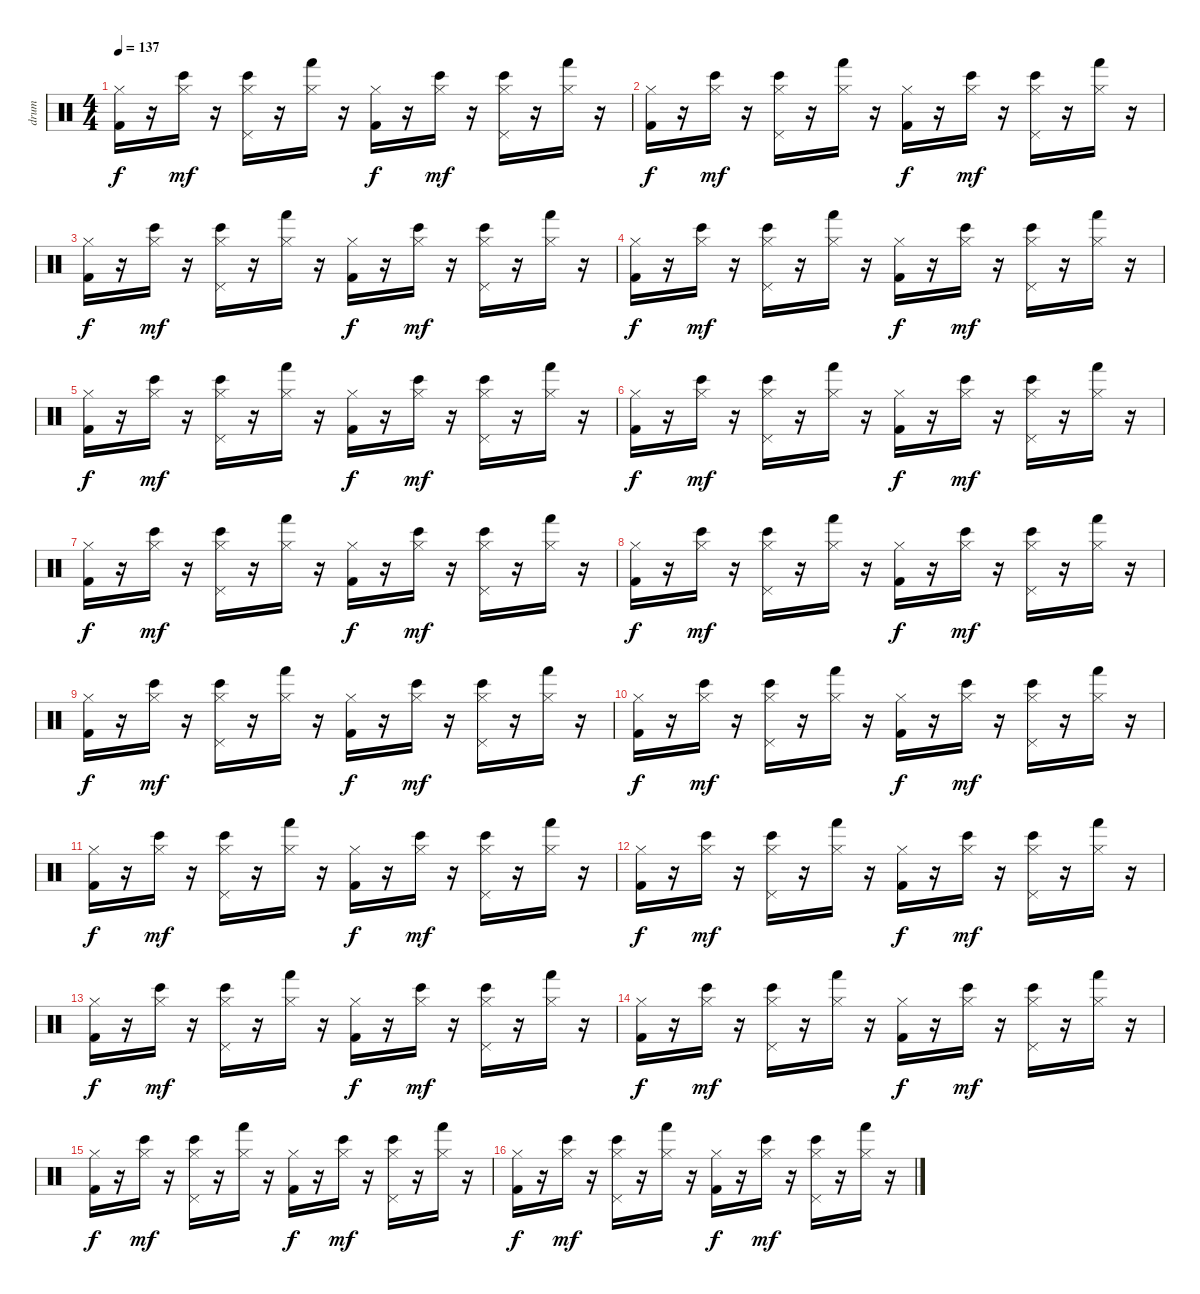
\track ("drum" "drum") {instrument percussion}
\staff {score}
\articulation defaults
\ts (4 4)
\tempo 137
\clef neutral
\ks c
("Kick (hit) 2" "Hi-Hat (closed)").16{dy f} r.16 ("Hi-Hat (closed)" "Bongo High (hit)").16{dy mf} r.16 ("Bongo High (hit)" "Hi-Hat (closed)" "Pedal Hi-Hat (hit)").16 r.16 ("Hi-Hat (closed)" "Hand (hit)").16 r.16 ("Kick (hit) 2" "Hi-Hat (closed)").16{dy f} r.16 ("Bongo High (hit)" "Hi-Hat (closed)").16{dy mf} r.16 ("Hi-Hat (closed)" "Bongo High (hit)" "Pedal Hi-Hat (hit)").16 r.16 ("Hand (hit)" "Hi-Hat (closed)").16 r.16 |
("Hi-Hat (closed)" "Kick (hit) 2").16{dy f} r.16 ("Hi-Hat (closed)" "Bongo High (hit)").16{dy mf} r.16 ("Bongo High (hit)" "Hi-Hat (closed)" "Pedal Hi-Hat (hit)").16 r.16 ("Hi-Hat (closed)" "Hand (hit)").16 r.16 ("Hi-Hat (closed)" "Kick (hit) 2").16{dy f} r.16 ("Hi-Hat (closed)" "Bongo High (hit)").16{dy mf} r.16 ("Hi-Hat (closed)" "Bongo High (hit)" "Pedal Hi-Hat (hit)").16 r.16 ("Hand (hit)" "Hi-Hat (closed)").16 r.16 |
("Hi-Hat (closed)" "Kick (hit) 2").16{dy f} r.16 ("Hi-Hat (closed)" "Bongo High (hit)").16{dy mf} r.16 ("Bongo High (hit)" "Hi-Hat (closed)" "Pedal Hi-Hat (hit)").16 r.16 ("Hand (hit)" "Hi-Hat (closed)").16 r.16 ("Hi-Hat (closed)" "Kick (hit) 2").16{dy f} r.16 ("Bongo High (hit)" "Hi-Hat (closed)").16{dy mf} r.16 ("Hi-Hat (closed)" "Bongo High (hit)" "Pedal Hi-Hat (hit)").16 r.16 ("Hand (hit)" "Hi-Hat (closed)").16 r.16 |
("Kick (hit) 2" "Hi-Hat (closed)").16{dy f} r.16 ("Hi-Hat (closed)" "Bongo High (hit)").16{dy mf} r.16 ("Hi-Hat (closed)" "Bongo High (hit)" "Pedal Hi-Hat (hit)").16 r.16 ("Hand (hit)" "Hi-Hat (closed)").16 r.16 ("Kick (hit) 2" "Hi-Hat (closed)").16{dy f} r.16 ("Bongo High (hit)" "Hi-Hat (closed)").16{dy mf} r.16 ("Bongo High (hit)" "Hi-Hat (closed)" "Pedal Hi-Hat (hit)").16 r.16 ("Hi-Hat (closed)" "Hand (hit)").16 r.16 |
("Hi-Hat (closed)" "Kick (hit) 2").16{dy f} r.16 ("Hi-Hat (closed)" "Bongo High (hit)").16{dy mf} r.16 ("Hi-Hat (closed)" "Bongo High (hit)" "Pedal Hi-Hat (hit)").16 r.16 ("Hi-Hat (closed)" "Hand (hit)").16 r.16 ("Hi-Hat (closed)" "Kick (hit) 2").16{dy f} r.16 ("Bongo High (hit)" "Hi-Hat (closed)").16{dy mf} r.16 ("Hi-Hat (closed)" "Bongo High (hit)" "Pedal Hi-Hat (hit)").16 r.16 ("Hand (hit)" "Hi-Hat (closed)").16 r.16 |
("Kick (hit) 2" "Hi-Hat (closed)").16{dy f} r.16 ("Bongo High (hit)" "Hi-Hat (closed)").16{dy mf} r.16 ("Hi-Hat (closed)" "Bongo High (hit)" "Pedal Hi-Hat (hit)").16 r.16 ("Hand (hit)" "Hi-Hat (closed)").16 r.16 ("Hi-Hat (closed)" "Kick (hit) 2").16{dy f} r.16 ("Bongo High (hit)" "Hi-Hat (closed)").16{dy mf} r.16 ("Bongo High (hit)" "Hi-Hat (closed)" "Pedal Hi-Hat (hit)").16 r.16 ("Hi-Hat (closed)" "Hand (hit)").16 r.16 |
("Kick (hit) 2" "Hi-Hat (closed)").16{dy f} r.16 ("Hi-Hat (closed)" "Bongo High (hit)").16{dy mf} r.16 ("Hi-Hat (closed)" "Bongo High (hit)" "Pedal Hi-Hat (hit)").16 r.16 ("Hand (hit)" "Hi-Hat (closed)").16 r.16 ("Hi-Hat (closed)" "Kick (hit) 2").16{dy f} r.16 ("Hi-Hat (closed)" "Bongo High (hit)").16{dy mf} r.16 ("Bongo High (hit)" "Hi-Hat (closed)" "Pedal Hi-Hat (hit)").16 r.16 ("Hi-Hat (closed)" "Hand (hit)").16 r.16 |
("Kick (hit) 2" "Hi-Hat (closed)").16{dy f} r.16 ("Hi-Hat (closed)" "Bongo High (hit)").16{dy mf} r.16 ("Bongo High (hit)" "Hi-Hat (closed)" "Pedal Hi-Hat (hit)").16 r.16 ("Hi-Hat (closed)" "Hand (hit)").16 r.16 ("Hi-Hat (closed)" "Kick (hit) 2").16{dy f} r.16 ("Hi-Hat (closed)" "Bongo High (hit)").16{dy mf} r.16 ("Hi-Hat (closed)" "Bongo High (hit)" "Pedal Hi-Hat (hit)").16 r.16 ("Hand (hit)" "Hi-Hat (closed)").16 r.16 |
("Kick (hit) 2" "Hi-Hat (closed)").16{dy f} r.16 ("Bongo High (hit)" "Hi-Hat (closed)").16{dy mf} r.16 ("Hi-Hat (closed)" "Bongo High (hit)" "Pedal Hi-Hat (hit)").16 r.16 ("Hi-Hat (closed)" "Hand (hit)").16 r.16 ("Kick (hit) 2" "Hi-Hat (closed)").16{dy f} r.16 ("Bongo High (hit)" "Hi-Hat (closed)").16{dy mf} r.16 ("Bongo High (hit)" "Hi-Hat (closed)" "Pedal Hi-Hat (hit)").16 r.16 ("Hand (hit)" "Hi-Hat (closed)").16 r.16 |
("Hi-Hat (closed)" "Kick (hit) 2").16{dy f} r.16 ("Bongo High (hit)" "Hi-Hat (closed)").16{dy mf} r.16 ("Bongo High (hit)" "Hi-Hat (closed)" "Pedal Hi-Hat (hit)").16 r.16 ("Hand (hit)" "Hi-Hat (closed)").16 r.16 ("Kick (hit) 2" "Hi-Hat (closed)").16{dy f} r.16 ("Hi-Hat (closed)" "Bongo High (hit)").16{dy mf} r.16 ("Hi-Hat (closed)" "Bongo High (hit)" "Pedal Hi-Hat (hit)").16 r.16 ("Hi-Hat (closed)" "Hand (hit)").16 r.16 |
("Kick (hit) 2" "Hi-Hat (closed)").16{dy f} r.16 ("Hi-Hat (closed)" "Bongo High (hit)").16{dy mf} r.16 ("Hi-Hat (closed)" "Bongo High (hit)" "Pedal Hi-Hat (hit)").16 r.16 ("Hi-Hat (closed)" "Hand (hit)").16 r.16 ("Kick (hit) 2" "Hi-Hat (closed)").16{dy f} r.16 ("Hi-Hat (closed)" "Bongo High (hit)").16{dy mf} r.16 ("Hi-Hat (closed)" "Bongo High (hit)" "Pedal Hi-Hat (hit)").16 r.16 ("Hi-Hat (closed)" "Hand (hit)").16 r.16 |
("Kick (hit) 2" "Hi-Hat (closed)").16{dy f} r.16 ("Bongo High (hit)" "Hi-Hat (closed)").16{dy mf} r.16 ("Bongo High (hit)" "Hi-Hat (closed)" "Pedal Hi-Hat (hit)").16 r.16 ("Hi-Hat (closed)" "Hand (hit)").16 r.16 ("Hi-Hat (closed)" "Kick (hit) 2").16{dy f} r.16 ("Bongo High (hit)" "Hi-Hat (closed)").16{dy mf} r.16 ("Hi-Hat (closed)" "Bongo High (hit)" "Pedal Hi-Hat (hit)").16 r.16 ("Hand (hit)" "Hi-Hat (closed)").16 r.16 |
("Hi-Hat (closed)" "Kick (hit) 2").16{dy f} r.16 ("Hi-Hat (closed)" "Bongo High (hit)").16{dy mf} r.16 ("Hi-Hat (closed)" "Bongo High (hit)" "Pedal Hi-Hat (hit)").16 r.16 ("Hi-Hat (closed)" "Hand (hit)").16 r.16 ("Hi-Hat (closed)" "Kick (hit) 2").16{dy f} r.16 ("Hi-Hat (closed)" "Bongo High (hit)").16{dy mf} r.16 ("Hi-Hat (closed)" "Bongo High (hit)" "Pedal Hi-Hat (hit)").16 r.16 ("Hand (hit)" "Hi-Hat (closed)").16 r.16 |
("Kick (hit) 2" "Hi-Hat (closed)").16{dy f} r.16 ("Hi-Hat (closed)" "Bongo High (hit)").16{dy mf} r.16 ("Bongo High (hit)" "Hi-Hat (closed)" "Pedal Hi-Hat (hit)").16 r.16 ("Hand (hit)" "Hi-Hat (closed)").16 r.16 ("Kick (hit) 2" "Hi-Hat (closed)").16{dy f} r.16 ("Hi-Hat (closed)" "Bongo High (hit)").16{dy mf} r.16 ("Bongo High (hit)" "Hi-Hat (closed)" "Pedal Hi-Hat (hit)").16 r.16 ("Hand (hit)" "Hi-Hat (closed)").16 r.16 |
("Hi-Hat (closed)" "Kick (hit) 2").16{dy f} r.16 ("Bongo High (hit)" "Hi-Hat (closed)").16{dy mf} r.16 ("Hi-Hat (closed)" "Bongo High (hit)" "Pedal Hi-Hat (hit)").16 r.16 ("Hand (hit)" "Hi-Hat (closed)").16 r.16 ("Hi-Hat (closed)" "Kick (hit) 2").16{dy f} r.16 ("Bongo High (hit)" "Hi-Hat (closed)").16{dy mf} r.16 ("Bongo High (hit)" "Hi-Hat (closed)" "Pedal Hi-Hat (hit)").16 r.16 ("Hi-Hat (closed)" "Hand (hit)").16 r.16 |
("Hi-Hat (closed)" "Kick (hit) 2").16{dy f} r.16 ("Bongo High (hit)" "Hi-Hat (closed)").16{dy mf} r.16 ("Bongo High (hit)" "Hi-Hat (closed)" "Pedal Hi-Hat (hit)").16 r.16 ("Hi-Hat (closed)" "Hand (hit)").16 r.16 ("Kick (hit) 2" "Hi-Hat (closed)").16{dy f} r.16 ("Hi-Hat (closed)" "Bongo High (hit)").16{dy mf} r.16 ("Bongo High (hit)" "Hi-Hat (closed)" "Pedal Hi-Hat (hit)").16 r.16 ("Hand (hit)" "Hi-Hat (closed)").16 r.16
